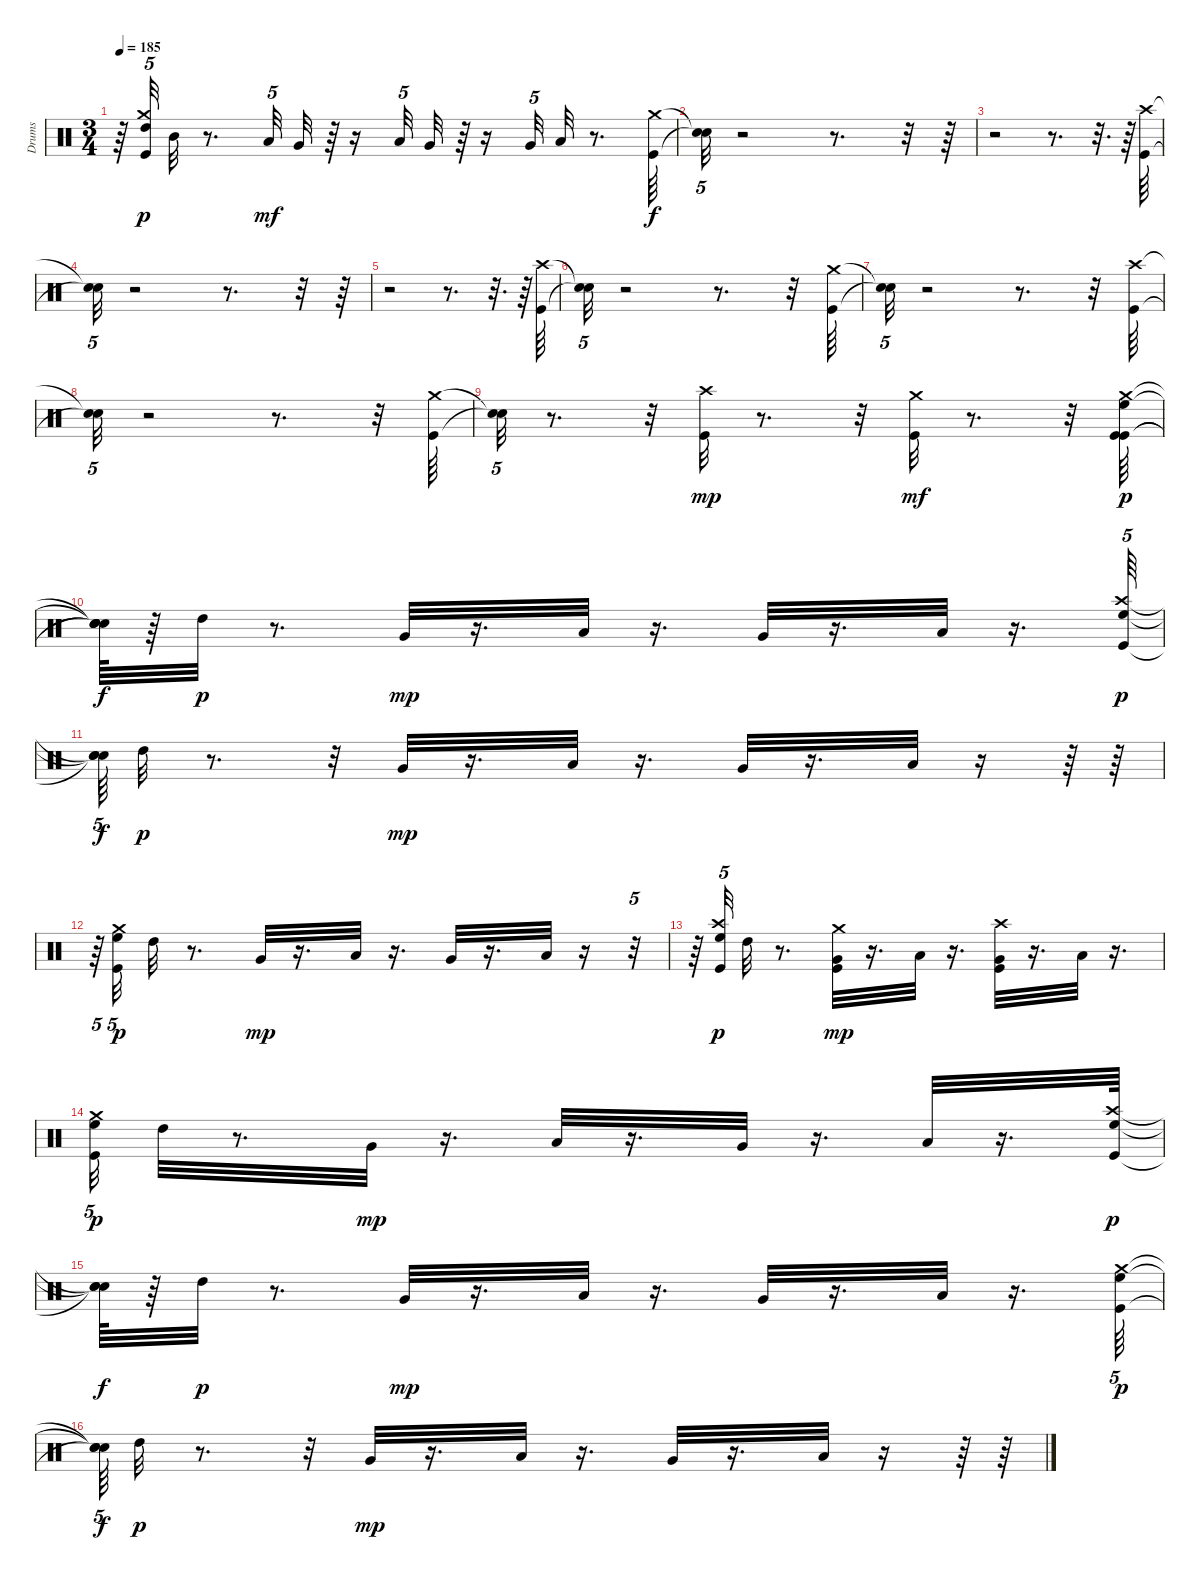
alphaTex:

\track ("Drums" "Drums") {instrument percussion}
\staff {score}
\articulation defaults
\ts (3 4)
\tempo 185
\clef neutral
\ks c
r.64{dy f} ("High Tom (hit)" "Crash medium (hit)" "Kick (hit)").32{tu (5 4) dy p} "Mid Tom (hit)".32 r.8{d} "Low Tom (hit)".32{tu (5 4) dy mf} "Very Low Tom (hit)".32 r.64 r.16 "Low Tom (hit)".32{tu (5 4)} "Very Low Tom (hit)".32 r.64 r.16 "Very Low Tom (hit)".32{tu (5 4)} "Low Floor Tom (hit)".32 r.8{d} ("Crash medium (hit)" "Kick (hit)").64{dy f} |
("Snare (hit)"{t} "Snare (hit)"{t}).32{tu (5 4)} r.2 r.8{d} r.32 r.64 |
r.2 r.8{d} r.32{d} r.64 ("Crash high (hit)" "Kick (hit)").64 |
("Snare (hit)"{t} "Snare (hit)"{t}).32{tu (5 4)} r.2 r.8{d} r.32 r.64 |
r.2 r.8{d} r.32{d} r.64 ("Crash high (hit)" "Kick (hit)").64 |
("Snare (hit)"{t} "Snare (hit)"{t}).32{tu (5 4)} r.2 r.8{d} r.32 ("Crash medium (hit)" "Kick (hit)").64 |
("Snare (hit)"{t} "Snare (hit)"{t}).32{tu (5 4)} r.2 r.8{d} r.32 ("Crash high (hit)" "Kick (hit)").64 |
("Snare (hit)"{t} "Snare (hit)"{t}).32{tu (5 4)} r.2 r.8{d} r.32 ("Crash medium (hit)" "Kick (hit)").64 |
("Snare (hit)"{t} "Snare (hit)"{t}).32{tu (5 4)} r.8{d} r.32 ("Crash high (hit)" "Kick (hit)").32{dy mp} r.8{d} r.32 ("Crash medium (hit)" "Kick (hit)").32{dy mf} r.8{d} r.32 ("Crash medium (hit)" "Kick (hit)" "High Floor Tom (hit)" "Kick (hit)").64{dy p} |
("Snare (hit)"{t} "Snare (hit)"{t} "Snare (hit)"{t} "Snare (hit)"{t}).64{dy f} r.64 "High Tom (hit)".32{dy p} r.8{d} "Very Low Tom (hit)".32{dy mp} r.16{d} "Low Floor Tom (hit)".32 r.16{d} "Very Low Tom (hit)".32 r.16{d} "Low Floor Tom (hit)".32 r.16{d} ("Crash high (hit)" "High Floor Tom (hit)" "Kick (hit)").64{tu (5 4) dy p} |
("Snare (hit)"{t} "Snare (hit)"{t} "Snare (hit)"{t}).64{tu (5 4) dy f} "High Tom (hit)".32{dy p} r.8{d} r.32 "Very Low Tom (hit)".32{dy mp} r.16{d} "Low Floor Tom (hit)".32 r.16{d} "Very Low Tom (hit)".32 r.16{d} "Low Floor Tom (hit)".32 r.16 r.64 r.64 |
r.64{tu (5 4)} ("Crash medium (hit)" "High Floor Tom (hit)" "Kick (hit)").32{tu (5 4) dy p} "High Tom (hit)".32 r.8{d} "Very Low Tom (hit)".32{dy mp} r.16{d} "Low Floor Tom (hit)".32 r.16{d} "Very Low Tom (hit)".32 r.16{d} "Low Floor Tom (hit)".32 r.16 r.32{tu (5 4)} |
r.64 ("Crash high (hit)" "High Floor Tom (hit)" "Kick (hit)").32{tu (5 4) dy p} "High Tom (hit)".32 r.8{d} ("Kick (hit)" "Crash medium (hit)" "Very Low Tom (hit)").32{dy mp} r.16{d} "Low Floor Tom (hit)".32 r.16{d} ("Kick (hit)" "Crash high (hit)" "Very Low Tom (hit)").32 r.16{d} "Low Floor Tom (hit)".32 r.16{d} |
("Crash medium (hit)" "High Floor Tom (hit)" "Kick (hit)").32{tu (5 4) dy p} "High Tom (hit)".32 r.8{d} "Very Low Tom (hit)".32{dy mp} r.16{d} "Low Floor Tom (hit)".32 r.16{d} "Very Low Tom (hit)".32 r.16{d} "Low Floor Tom (hit)".32 r.16{d} ("Crash high (hit)" "High Floor Tom (hit)" "Kick (hit)").64{dy p} |
("Snare (hit)"{t} "Snare (hit)"{t} "Snare (hit)"{t}).64{dy f} r.64 "High Tom (hit)".32{dy p} r.8{d} "Very Low Tom (hit)".32{dy mp} r.16{d} "Low Floor Tom (hit)".32 r.16{d} "Very Low Tom (hit)".32 r.16{d} "Low Floor Tom (hit)".32 r.16{d} ("Kick (hit)" "Crash medium (hit)" "High Floor Tom (hit)").64{tu (5 4) dy p} |
("Snare (hit)"{t} "Snare (hit)"{t} "Snare (hit)"{t}).64{tu (5 4) dy f} "High Tom (hit)".32{dy p} r.8{d} r.32 "Very Low Tom (hit)".32{dy mp} r.16{d} "Low Floor Tom (hit)".32 r.16{d} "Very Low Tom (hit)".32 r.16{d} "Low Floor Tom (hit)".32 r.16 r.64 r.64
